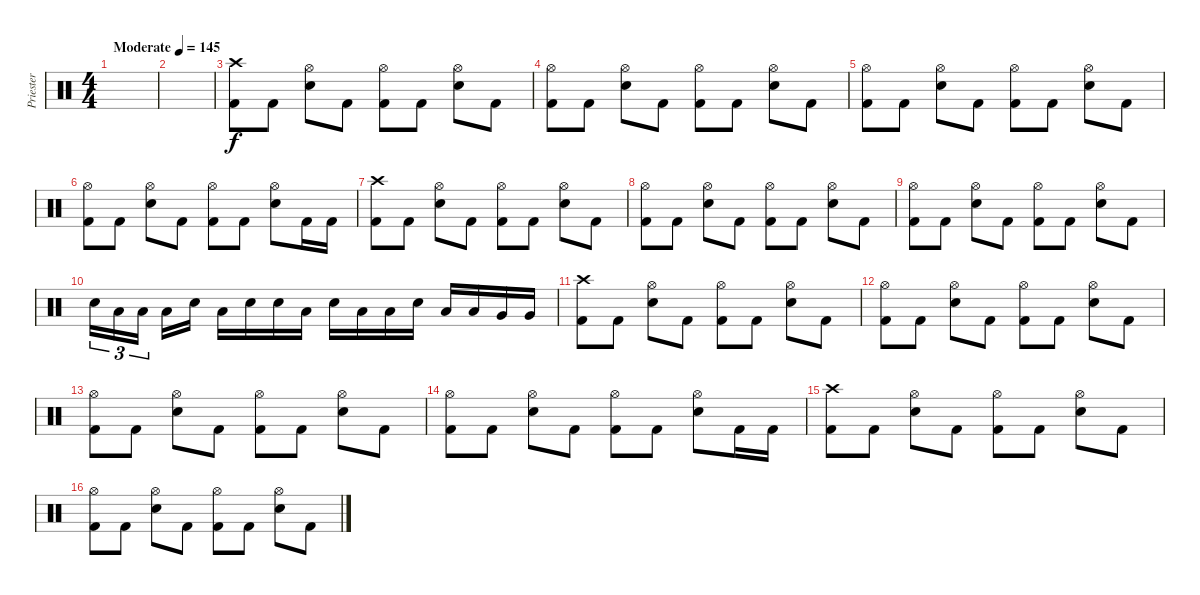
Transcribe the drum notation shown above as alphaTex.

\track ("Priester" "Priester") {instrument percussion}
\staff {score}
\articulation defaults
\ts (4 4)
\tempo (145 "Moderate")
\clef neutral
\ks c
|
|
("Crash high (hit)" "Kick (hit) 2").8 "Kick (hit) 2".8 ("Hi-Hat (open)" "Electric Snare (hit)").8 "Kick (hit) 2".8 ("Hi-Hat (open)" "Kick (hit) 2").8 "Kick (hit) 2".8 ("Hi-Hat (open)" "Electric Snare (hit)").8 "Kick (hit) 2".8 |
("Hi-Hat (open)" "Kick (hit) 2").8 "Kick (hit) 2".8 ("Hi-Hat (open)" "Electric Snare (hit)").8 "Kick (hit) 2".8 ("Hi-Hat (open)" "Kick (hit) 2").8 "Kick (hit) 2".8 ("Hi-Hat (open)" "Electric Snare (hit)").8 "Kick (hit) 2".8 |
("Hi-Hat (open)" "Kick (hit) 2").8 "Kick (hit) 2".8 ("Hi-Hat (open)" "Electric Snare (hit)").8 "Kick (hit) 2".8 ("Hi-Hat (open)" "Kick (hit) 2").8 "Kick (hit) 2".8 ("Hi-Hat (open)" "Electric Snare (hit)").8 "Kick (hit) 2".8 |
("Hi-Hat (open)" "Kick (hit) 2").8 "Kick (hit) 2".8 ("Hi-Hat (open)" "Electric Snare (hit)").8 "Kick (hit) 2".8 ("Hi-Hat (open)" "Kick (hit) 2").8 "Kick (hit) 2".8 ("Hi-Hat (open)" "Electric Snare (hit)").8 "Kick (hit) 2".16 "Kick (hit) 2".16 |
("Crash high (hit)" "Kick (hit) 2").8 "Kick (hit) 2".8 ("Hi-Hat (open)" "Electric Snare (hit)").8 "Kick (hit) 2".8 ("Hi-Hat (open)" "Kick (hit) 2").8 "Kick (hit) 2".8 ("Hi-Hat (open)" "Electric Snare (hit)").8 "Kick (hit) 2".8 |
("Hi-Hat (open)" "Kick (hit) 2").8 "Kick (hit) 2".8 ("Hi-Hat (open)" "Electric Snare (hit)").8 "Kick (hit) 2".8 ("Hi-Hat (open)" "Kick (hit) 2").8 "Kick (hit) 2".8 ("Hi-Hat (open)" "Electric Snare (hit)").8 "Kick (hit) 2".8 |
("Hi-Hat (open)" "Kick (hit) 2").8 "Kick (hit) 2".8 ("Hi-Hat (open)" "Electric Snare (hit)").8 "Kick (hit) 2".8 ("Hi-Hat (open)" "Kick (hit) 2").8 "Kick (hit) 2".8 ("Hi-Hat (open)" "Electric Snare (hit)").8 "Kick (hit) 2".8 |
"Electric Snare (hit)".16{tu (3 2)} "Low Tom (hit)".16{tu (3 2)} "Low Tom (hit)".16{tu (3 2) beam splitsecondary} "Low Tom (hit)".16 "Electric Snare (hit)".16 "Low Tom (hit)".16 "Electric Snare (hit)".16 "Electric Snare (hit)".16 "Low Tom (hit)".16 "Electric Snare (hit)".16 "Low Tom (hit)".16 "Low Tom (hit)".16 "Electric Snare (hit)".16 "Low Tom (hit)".16 "Low Tom (hit)".16 "Very Low Tom (hit)".16 "Very Low Tom (hit)".16 |
("Crash high (hit)" "Kick (hit) 2").8 "Kick (hit) 2".8 ("Hi-Hat (open)" "Electric Snare (hit)").8 "Kick (hit) 2".8 ("Hi-Hat (open)" "Kick (hit) 2").8 "Kick (hit) 2".8 ("Hi-Hat (open)" "Electric Snare (hit)").8 "Kick (hit) 2".8 |
("Hi-Hat (open)" "Kick (hit) 2").8 "Kick (hit) 2".8 ("Hi-Hat (open)" "Electric Snare (hit)").8 "Kick (hit) 2".8 ("Hi-Hat (open)" "Kick (hit) 2").8 "Kick (hit) 2".8 ("Hi-Hat (open)" "Electric Snare (hit)").8 "Kick (hit) 2".8 |
("Hi-Hat (open)" "Kick (hit) 2").8 "Kick (hit) 2".8 ("Hi-Hat (open)" "Electric Snare (hit)").8 "Kick (hit) 2".8 ("Hi-Hat (open)" "Kick (hit) 2").8 "Kick (hit) 2".8 ("Hi-Hat (open)" "Electric Snare (hit)").8 "Kick (hit) 2".8 |
("Hi-Hat (open)" "Kick (hit) 2").8 "Kick (hit) 2".8 ("Hi-Hat (open)" "Electric Snare (hit)").8 "Kick (hit) 2".8 ("Hi-Hat (open)" "Kick (hit) 2").8 "Kick (hit) 2".8 ("Hi-Hat (open)" "Electric Snare (hit)").8 "Kick (hit) 2".16 "Kick (hit) 2".16 |
("Crash high (hit)" "Kick (hit) 2").8 "Kick (hit) 2".8 ("Hi-Hat (open)" "Electric Snare (hit)").8 "Kick (hit) 2".8 ("Hi-Hat (open)" "Kick (hit) 2").8 "Kick (hit) 2".8 ("Hi-Hat (open)" "Electric Snare (hit)").8 "Kick (hit) 2".8 |
("Hi-Hat (open)" "Kick (hit) 2").8 "Kick (hit) 2".8 ("Hi-Hat (open)" "Electric Snare (hit)").8 "Kick (hit) 2".8 ("Hi-Hat (open)" "Kick (hit) 2").8 "Kick (hit) 2".8 ("Hi-Hat (open)" "Electric Snare (hit)").8 "Kick (hit) 2".8
